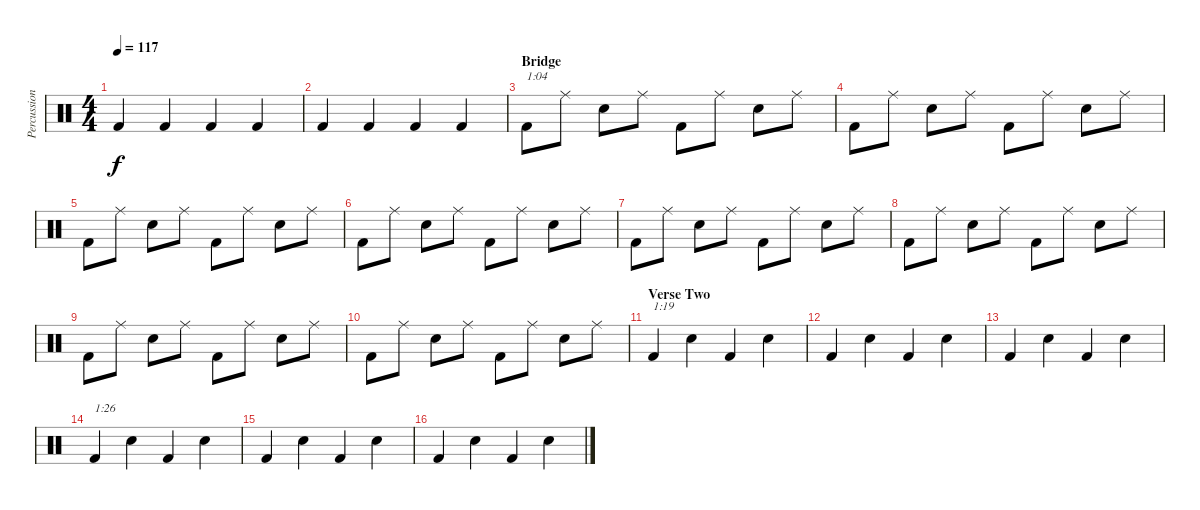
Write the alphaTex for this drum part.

\track ("Percussion" "Percussion") {instrument percussion}
\staff {score}
\articulation defaults
\ts (4 4)
\tempo 117
\clef neutral
\ks c "Kick (hit) 2".4{dy f} "Kick (hit) 2".4 "Kick (hit) 2".4 "Kick (hit) 2".4
|
"Kick (hit) 2".4 "Kick (hit) 2".4 "Kick (hit) 2".4 "Kick (hit) 2".4 |
\section ("" "Bridge")
"Kick (hit) 2".8{txt "1:04"} "Ride (middle)".8 "Snare (hit) 2".8 "Ride (middle)".8 "Kick (hit) 2".8 "Ride (middle)".8 "Snare (hit) 2".8 "Ride (middle)".8 |
"Kick (hit) 2".8 "Ride (middle)".8 "Snare (hit) 2".8 "Ride (middle)".8 "Kick (hit) 2".8 "Ride (middle)".8 "Snare (hit) 2".8 "Ride (middle)".8 |
"Kick (hit) 2".8 "Ride (middle)".8 "Snare (hit) 2".8 "Ride (middle)".8 "Kick (hit) 2".8 "Ride (middle)".8 "Snare (hit) 2".8 "Ride (middle)".8 |
"Kick (hit) 2".8 "Ride (middle)".8 "Snare (hit) 2".8 "Ride (middle)".8 "Kick (hit) 2".8 "Ride (middle)".8 "Snare (hit) 2".8 "Ride (middle)".8 |
"Kick (hit) 2".8 "Ride (middle)".8 "Snare (hit) 2".8 "Ride (middle)".8 "Kick (hit) 2".8 "Ride (middle)".8 "Snare (hit) 2".8 "Ride (middle)".8 |
"Kick (hit) 2".8 "Ride (middle)".8 "Snare (hit) 2".8 "Ride (middle)".8 "Kick (hit) 2".8 "Ride (middle)".8 "Snare (hit) 2".8 "Ride (middle)".8 |
"Kick (hit) 2".8 "Ride (middle)".8 "Snare (hit) 2".8 "Ride (middle)".8 "Kick (hit) 2".8 "Ride (middle)".8 "Snare (hit) 2".8 "Ride (middle)".8 |
"Kick (hit) 2".8 "Ride (middle)".8 "Snare (hit) 2".8 "Ride (middle)".8 "Kick (hit) 2".8 "Ride (middle)".8 "Snare (hit) 2".8 "Ride (middle)".8 |
\section ("" "Verse Two")
"Kick (hit) 2".4{txt "1:19"} "Snare (hit) 2".4 "Kick (hit) 2".4 "Snare (hit) 2".4 |
"Kick (hit) 2".4 "Snare (hit) 2".4 "Kick (hit) 2".4 "Snare (hit) 2".4 |
"Kick (hit) 2".4 "Snare (hit) 2".4 "Kick (hit) 2".4 "Snare (hit) 2".4 |
"Kick (hit) 2".4{txt "1:26"} "Snare (hit) 2".4 "Kick (hit) 2".4 "Snare (hit) 2".4 |
"Kick (hit) 2".4 "Snare (hit) 2".4 "Kick (hit) 2".4 "Snare (hit) 2".4 |
"Kick (hit) 2".4 "Snare (hit) 2".4 "Kick (hit) 2".4 "Snare (hit) 2".4
